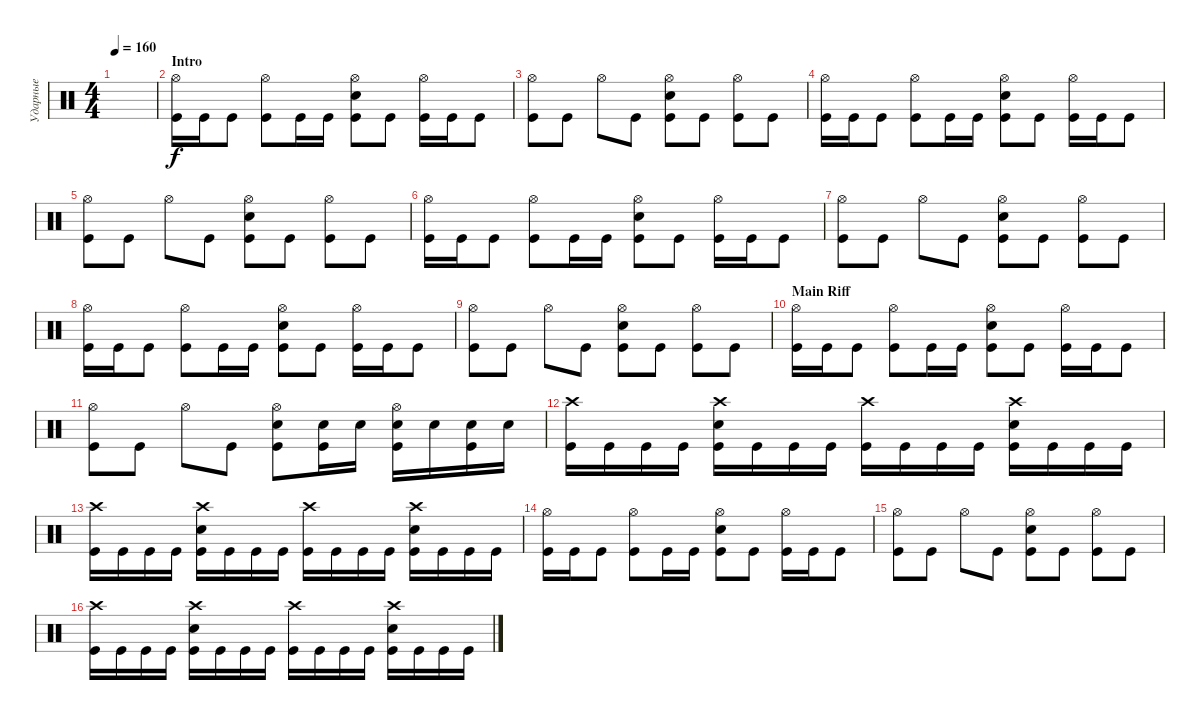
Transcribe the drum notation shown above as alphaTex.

\track ("Ударные" "Ударные") {instrument percussion}
\staff {score}
\articulation defaults
\ts (4 4)
\tempo 160
\clef neutral
\ks c
|
\section ("" "Intro")
("Hi-Hat (open)" "Kick (hit)").16 "Kick (hit)".16 "Kick (hit)".8 ("Hi-Hat (open)" "Kick (hit)").8 "Kick (hit)".16 "Kick (hit)".16 ("Hi-Hat (open)" "Snare (hit) 2" "Kick (hit)").8 "Kick (hit)".8 ("Hi-Hat (open)" "Kick (hit)").16 "Kick (hit)".16 "Kick (hit)".8 |
("Hi-Hat (open)" "Kick (hit)").8 "Kick (hit)".8 "Hi-Hat (open)".8 "Kick (hit)".8 ("Hi-Hat (open)" "Snare (hit) 2" "Kick (hit)").8 "Kick (hit)".8 ("Hi-Hat (open)" "Kick (hit)").8 "Kick (hit)".8 |
("Hi-Hat (open)" "Kick (hit)").16 "Kick (hit)".16 "Kick (hit)".8 ("Hi-Hat (open)" "Kick (hit)").8 "Kick (hit)".16 "Kick (hit)".16 ("Hi-Hat (open)" "Snare (hit) 2" "Kick (hit)").8 "Kick (hit)".8 ("Hi-Hat (open)" "Kick (hit)").16 "Kick (hit)".16 "Kick (hit)".8 |
("Hi-Hat (open)" "Kick (hit)").8 "Kick (hit)".8 "Hi-Hat (open)".8 "Kick (hit)".8 ("Hi-Hat (open)" "Snare (hit) 2" "Kick (hit)").8 "Kick (hit)".8 ("Hi-Hat (open)" "Kick (hit)").8 "Kick (hit)".8 |
("Hi-Hat (open)" "Kick (hit)").16 "Kick (hit)".16 "Kick (hit)".8 ("Hi-Hat (open)" "Kick (hit)").8 "Kick (hit)".16 "Kick (hit)".16 ("Hi-Hat (open)" "Snare (hit) 2" "Kick (hit)").8 "Kick (hit)".8 ("Hi-Hat (open)" "Kick (hit)").16 "Kick (hit)".16 "Kick (hit)".8 |
("Hi-Hat (open)" "Kick (hit)").8 "Kick (hit)".8 "Hi-Hat (open)".8 "Kick (hit)".8 ("Hi-Hat (open)" "Snare (hit) 2" "Kick (hit)").8 "Kick (hit)".8 ("Hi-Hat (open)" "Kick (hit)").8 "Kick (hit)".8 |
("Hi-Hat (open)" "Kick (hit)").16 "Kick (hit)".16 "Kick (hit)".8 ("Hi-Hat (open)" "Kick (hit)").8 "Kick (hit)".16 "Kick (hit)".16 ("Hi-Hat (open)" "Snare (hit) 2" "Kick (hit)").8 "Kick (hit)".8 ("Hi-Hat (open)" "Kick (hit)").16 "Kick (hit)".16 "Kick (hit)".8 |
("Hi-Hat (open)" "Kick (hit)").8 "Kick (hit)".8 "Hi-Hat (open)".8 "Kick (hit)".8 ("Hi-Hat (open)" "Snare (hit) 2" "Kick (hit)").8 "Kick (hit)".8 ("Hi-Hat (open)" "Kick (hit)").8 "Kick (hit)".8 |
\section ("" "Main Riff")
("Hi-Hat (open)" "Kick (hit)").16 "Kick (hit)".16 "Kick (hit)".8 ("Hi-Hat (open)" "Kick (hit)").8 "Kick (hit)".16 "Kick (hit)".16 ("Hi-Hat (open)" "Snare (hit) 2" "Kick (hit)").8 "Kick (hit)".8 ("Hi-Hat (open)" "Kick (hit)").16 "Kick (hit)".16 "Kick (hit)".8 |
("Hi-Hat (open)" "Kick (hit)").8 "Kick (hit)".8 "Hi-Hat (open)".8 "Kick (hit)".8 ("Hi-Hat (open)" "Snare (hit) 2" "Kick (hit)").8 ("Snare (hit) 2" "Kick (hit)").16 "Snare (hit) 2".16 ("Hi-Hat (open)" "Snare (hit) 2" "Kick (hit)").16 "Snare (hit) 2".16 ("Snare (hit) 2" "Kick (hit)").16 "Snare (hit) 2".16 |
("Crash high (hit)" "Kick (hit)").16 "Kick (hit)".16 "Kick (hit)".16 "Kick (hit)".16 ("Crash high (hit)" "Snare (hit) 2" "Kick (hit)").16 "Kick (hit)".16 "Kick (hit)".16 "Kick (hit)".16 ("Crash high (hit)" "Kick (hit)").16 "Kick (hit)".16 "Kick (hit)".16 "Kick (hit)".16 ("Crash high (hit)" "Snare (hit) 2" "Kick (hit)").16 "Kick (hit)".16 "Kick (hit)".16 "Kick (hit)".16 |
("Crash high (hit)" "Kick (hit)").16 "Kick (hit)".16 "Kick (hit)".16 "Kick (hit)".16 ("Crash high (hit)" "Snare (hit) 2" "Kick (hit)").16 "Kick (hit)".16 "Kick (hit)".16 "Kick (hit)".16 ("Crash high (hit)" "Kick (hit)").16 "Kick (hit)".16 "Kick (hit)".16 "Kick (hit)".16 ("Crash high (hit)" "Snare (hit) 2" "Kick (hit)").16 "Kick (hit)".16 "Kick (hit)".16 "Kick (hit)".16 |
("Hi-Hat (open)" "Kick (hit)").16 "Kick (hit)".16 "Kick (hit)".8 ("Hi-Hat (open)" "Kick (hit)").8 "Kick (hit)".16 "Kick (hit)".16 ("Hi-Hat (open)" "Snare (hit) 2" "Kick (hit)").8 "Kick (hit)".8 ("Hi-Hat (open)" "Kick (hit)").16 "Kick (hit)".16 "Kick (hit)".8 |
("Hi-Hat (open)" "Kick (hit)").8 "Kick (hit)".8 "Hi-Hat (open)".8 "Kick (hit)".8 ("Hi-Hat (open)" "Snare (hit) 2" "Kick (hit)").8 "Kick (hit)".8 ("Hi-Hat (open)" "Kick (hit)").8 "Kick (hit)".8 |
("Crash high (hit)" "Kick (hit)").16 "Kick (hit)".16 "Kick (hit)".16 "Kick (hit)".16 ("Crash high (hit)" "Snare (hit) 2" "Kick (hit)").16 "Kick (hit)".16 "Kick (hit)".16 "Kick (hit)".16 ("Crash high (hit)" "Kick (hit)").16 "Kick (hit)".16 "Kick (hit)".16 "Kick (hit)".16 ("Crash high (hit)" "Snare (hit) 2" "Kick (hit)").16 "Kick (hit)".16 "Kick (hit)".16 "Kick (hit)".16
